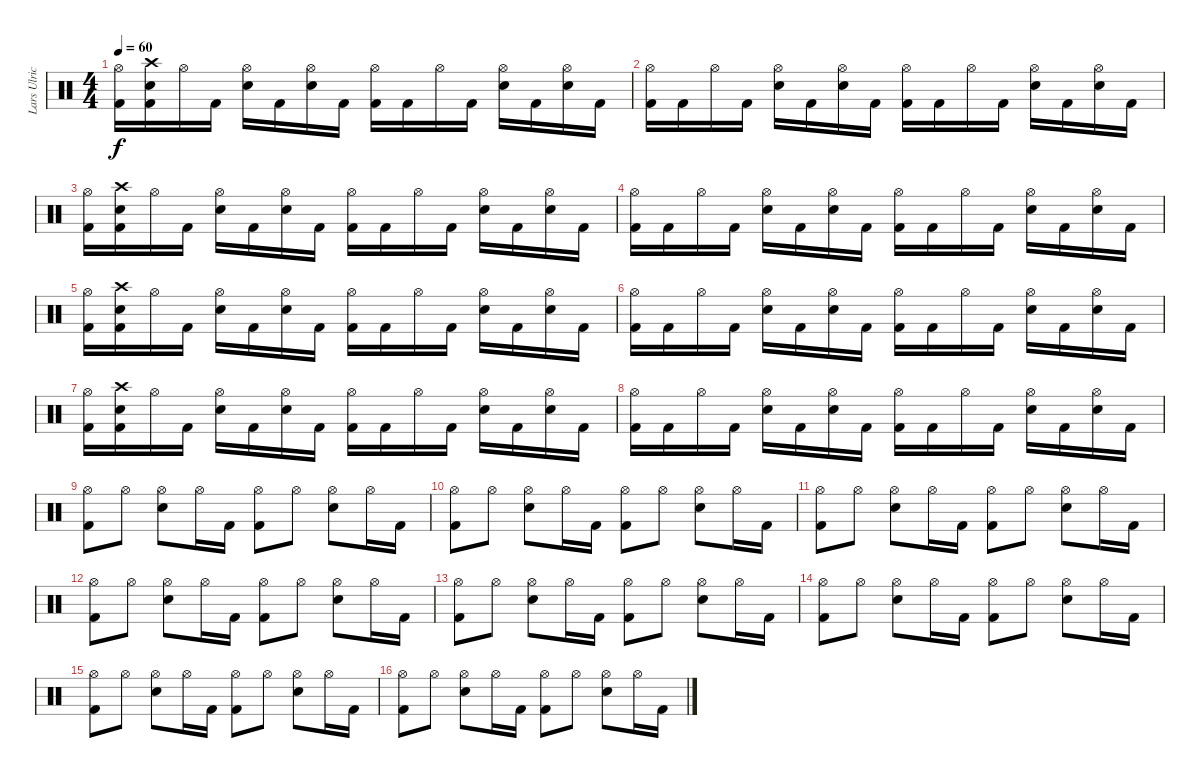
\track ("Lars Ulrich" "Lars Ulric") {instrument percussion}
\staff {score}
\articulation defaults
\ts (4 4)
\tempo 60
\clef neutral
\ks c
("Kick (hit) 2" "Hi-Hat (open)").16{dy f} ("Kick (hit) 2" "Electric Snare (hit)" "Crash high (hit)").16 "Hi-Hat (open)".16 "Kick (hit) 2".16 ("Snare (hit) 2" "Hi-Hat (open)").16 "Kick (hit) 2".16 ("Snare (hit) 2" "Hi-Hat (open)").16 "Kick (hit) 2".16 ("Kick (hit) 2" "Hi-Hat (open)").16 "Kick (hit) 2".16 "Hi-Hat (open)".16 "Kick (hit) 2".16 ("Snare (hit) 2" "Hi-Hat (open)").16 "Kick (hit) 2".16 ("Snare (hit) 2" "Hi-Hat (open)").16 "Kick (hit) 2".16 |
("Kick (hit) 2" "Hi-Hat (open)").16 "Kick (hit) 2".16 "Hi-Hat (open)".16 "Kick (hit) 2".16 ("Snare (hit) 2" "Hi-Hat (open)").16 "Kick (hit) 2".16 ("Snare (hit) 2" "Hi-Hat (open)").16 "Kick (hit) 2".16 ("Kick (hit) 2" "Hi-Hat (open)").16 "Kick (hit) 2".16 "Hi-Hat (open)".16 "Kick (hit) 2".16 ("Snare (hit) 2" "Hi-Hat (open)").16 "Kick (hit) 2".16 ("Snare (hit) 2" "Hi-Hat (open)").16 "Kick (hit) 2".16 |
("Kick (hit) 2" "Hi-Hat (open)").16 ("Kick (hit) 2" "Electric Snare (hit)" "Crash high (hit)").16 "Hi-Hat (open)".16 "Kick (hit) 2".16 ("Snare (hit) 2" "Hi-Hat (open)").16 "Kick (hit) 2".16 ("Snare (hit) 2" "Hi-Hat (open)").16 "Kick (hit) 2".16 ("Kick (hit) 2" "Hi-Hat (open)").16 "Kick (hit) 2".16 "Hi-Hat (open)".16 "Kick (hit) 2".16 ("Snare (hit) 2" "Hi-Hat (open)").16 "Kick (hit) 2".16 ("Snare (hit) 2" "Hi-Hat (open)").16 "Kick (hit) 2".16 |
("Kick (hit) 2" "Hi-Hat (open)").16 "Kick (hit) 2".16 "Hi-Hat (open)".16 "Kick (hit) 2".16 ("Snare (hit) 2" "Hi-Hat (open)").16 "Kick (hit) 2".16 ("Snare (hit) 2" "Hi-Hat (open)").16 "Kick (hit) 2".16 ("Kick (hit) 2" "Hi-Hat (open)").16 "Kick (hit) 2".16 "Hi-Hat (open)".16 "Kick (hit) 2".16 ("Snare (hit) 2" "Hi-Hat (open)").16 "Kick (hit) 2".16 ("Snare (hit) 2" "Hi-Hat (open)").16 "Kick (hit) 2".16 |
("Kick (hit) 2" "Hi-Hat (open)").16 ("Kick (hit) 2" "Electric Snare (hit)" "Crash high (hit)").16 "Hi-Hat (open)".16 "Kick (hit) 2".16 ("Snare (hit) 2" "Hi-Hat (open)").16 "Kick (hit) 2".16 ("Snare (hit) 2" "Hi-Hat (open)").16 "Kick (hit) 2".16 ("Kick (hit) 2" "Hi-Hat (open)").16 "Kick (hit) 2".16 "Hi-Hat (open)".16 "Kick (hit) 2".16 ("Snare (hit) 2" "Hi-Hat (open)").16 "Kick (hit) 2".16 ("Snare (hit) 2" "Hi-Hat (open)").16 "Kick (hit) 2".16 |
("Kick (hit) 2" "Hi-Hat (open)").16 "Kick (hit) 2".16 "Hi-Hat (open)".16 "Kick (hit) 2".16 ("Snare (hit) 2" "Hi-Hat (open)").16 "Kick (hit) 2".16 ("Snare (hit) 2" "Hi-Hat (open)").16 "Kick (hit) 2".16 ("Kick (hit) 2" "Hi-Hat (open)").16 "Kick (hit) 2".16 "Hi-Hat (open)".16 "Kick (hit) 2".16 ("Snare (hit) 2" "Hi-Hat (open)").16 "Kick (hit) 2".16 ("Snare (hit) 2" "Hi-Hat (open)").16 "Kick (hit) 2".16 |
("Kick (hit) 2" "Hi-Hat (open)").16 ("Kick (hit) 2" "Electric Snare (hit)" "Crash high (hit)").16 "Hi-Hat (open)".16 "Kick (hit) 2".16 ("Snare (hit) 2" "Hi-Hat (open)").16 "Kick (hit) 2".16 ("Snare (hit) 2" "Hi-Hat (open)").16 "Kick (hit) 2".16 ("Kick (hit) 2" "Hi-Hat (open)").16 "Kick (hit) 2".16 "Hi-Hat (open)".16 "Kick (hit) 2".16 ("Snare (hit) 2" "Hi-Hat (open)").16 "Kick (hit) 2".16 ("Snare (hit) 2" "Hi-Hat (open)").16 "Kick (hit) 2".16 |
("Kick (hit) 2" "Hi-Hat (open)").16 "Kick (hit) 2".16 "Hi-Hat (open)".16 "Kick (hit) 2".16 ("Snare (hit) 2" "Hi-Hat (open)").16 "Kick (hit) 2".16 ("Snare (hit) 2" "Hi-Hat (open)").16 "Kick (hit) 2".16 ("Kick (hit) 2" "Hi-Hat (open)").16 "Kick (hit) 2".16 "Hi-Hat (open)".16 "Kick (hit) 2".16 ("Snare (hit) 2" "Hi-Hat (open)").16 "Kick (hit) 2".16 ("Snare (hit) 2" "Hi-Hat (open)").16 "Kick (hit) 2".16 |
("Kick (hit) 2" "Hi-Hat (open)").8 "Hi-Hat (open)".8 ("Snare (hit) 2" "Hi-Hat (open)").8 "Hi-Hat (open)".16 "Kick (hit) 2".16 ("Kick (hit) 2" "Hi-Hat (open)").8 "Hi-Hat (open)".8 ("Snare (hit) 2" "Hi-Hat (open)").8 "Hi-Hat (open)".16 "Kick (hit) 2".16 |
("Kick (hit) 2" "Hi-Hat (open)").8 "Hi-Hat (open)".8 ("Snare (hit) 2" "Hi-Hat (open)").8 "Hi-Hat (open)".16 "Kick (hit) 2".16 ("Kick (hit) 2" "Hi-Hat (open)").8 "Hi-Hat (open)".8 ("Snare (hit) 2" "Hi-Hat (open)").8 "Hi-Hat (open)".16 "Kick (hit) 2".16 |
("Kick (hit) 2" "Hi-Hat (open)").8 "Hi-Hat (open)".8 ("Snare (hit) 2" "Hi-Hat (open)").8 "Hi-Hat (open)".16 "Kick (hit) 2".16 ("Kick (hit) 2" "Hi-Hat (open)").8 "Hi-Hat (open)".8 ("Snare (hit) 2" "Hi-Hat (open)").8 "Hi-Hat (open)".16 "Kick (hit) 2".16 |
("Kick (hit) 2" "Hi-Hat (open)").8 "Hi-Hat (open)".8 ("Snare (hit) 2" "Hi-Hat (open)").8 "Hi-Hat (open)".16 "Kick (hit) 2".16 ("Kick (hit) 2" "Hi-Hat (open)").8 "Hi-Hat (open)".8 ("Snare (hit) 2" "Hi-Hat (open)").8 "Hi-Hat (open)".16 "Kick (hit) 2".16 |
("Kick (hit) 2" "Hi-Hat (open)").8 "Hi-Hat (open)".8 ("Snare (hit) 2" "Hi-Hat (open)").8 "Hi-Hat (open)".16 "Kick (hit) 2".16 ("Kick (hit) 2" "Hi-Hat (open)").8 "Hi-Hat (open)".8 ("Snare (hit) 2" "Hi-Hat (open)").8 "Hi-Hat (open)".16 "Kick (hit) 2".16 |
("Kick (hit) 2" "Hi-Hat (open)").8 "Hi-Hat (open)".8 ("Snare (hit) 2" "Hi-Hat (open)").8 "Hi-Hat (open)".16 "Kick (hit) 2".16 ("Kick (hit) 2" "Hi-Hat (open)").8 "Hi-Hat (open)".8 ("Snare (hit) 2" "Hi-Hat (open)").8 "Hi-Hat (open)".16 "Kick (hit) 2".16 |
("Kick (hit) 2" "Hi-Hat (open)").8 "Hi-Hat (open)".8 ("Snare (hit) 2" "Hi-Hat (open)").8 "Hi-Hat (open)".16 "Kick (hit) 2".16 ("Kick (hit) 2" "Hi-Hat (open)").8 "Hi-Hat (open)".8 ("Snare (hit) 2" "Hi-Hat (open)").8 "Hi-Hat (open)".16 "Kick (hit) 2".16 |
("Kick (hit) 2" "Hi-Hat (open)").8 "Hi-Hat (open)".8 ("Snare (hit) 2" "Hi-Hat (open)").8 "Hi-Hat (open)".16 "Kick (hit) 2".16 ("Kick (hit) 2" "Hi-Hat (open)").8 "Hi-Hat (open)".8 ("Snare (hit) 2" "Hi-Hat (open)").8 "Hi-Hat (open)".16 "Kick (hit) 2".16
